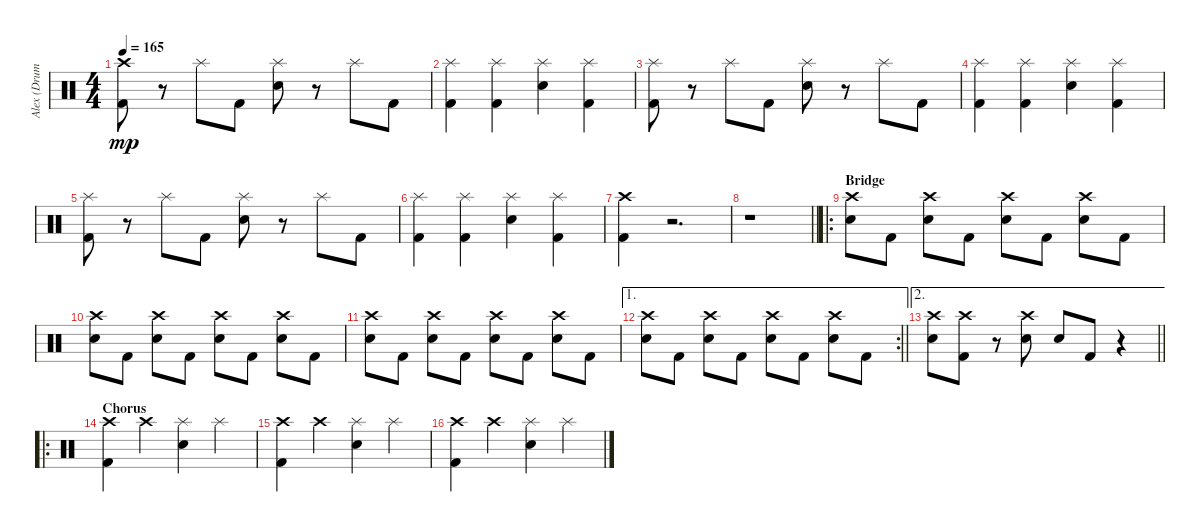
\track ("Alex (Drums)" "Alex (Drum") {instrument percussion}
\staff {score}
\articulation defaults
\ts (4 4)
\tempo 165
\clef neutral
\ks c
("Crash high (hit)" "Kick (hit) 2").8{dy mp} r.8 "Splash (hit)".8 "Kick (hit) 2".8 ("Splash (hit)" "Snare (hit) 2").8 r.8 "Splash (hit)".8 "Kick (hit) 2".8 |
("Splash (hit)" "Kick (hit) 2").4 ("Splash (hit)" "Kick (hit) 2").4 ("Splash (hit)" "Snare (hit) 2").4 ("Splash (hit)" "Kick (hit) 2").4 |
("Splash (hit)" "Kick (hit) 2").8 r.8 "Splash (hit)".8 "Kick (hit) 2".8 ("Splash (hit)" "Snare (hit) 2").8 r.8 "Splash (hit)".8 "Kick (hit) 2".8 |
("Splash (hit)" "Kick (hit) 2").4 ("Splash (hit)" "Kick (hit) 2").4 ("Splash (hit)" "Snare (hit) 2").4 ("Splash (hit)" "Kick (hit) 2").4 |
("Splash (hit)" "Kick (hit) 2").8 r.8 "Splash (hit)".8 "Kick (hit) 2".8 ("Splash (hit)" "Snare (hit) 2").8 r.8 "Splash (hit)".8 "Kick (hit) 2".8 |
("Splash (hit)" "Kick (hit) 2").4 ("Splash (hit)" "Kick (hit) 2").4 ("Splash (hit)" "Snare (hit) 2").4 ("Splash (hit)" "Kick (hit) 2").4 |
("Crash high (hit)" "Kick (hit) 2").4 r.2{d} |
\barLineRight lightlight
r.1 |
\ro
\section ("" "Bridge")
("Crash high (hit)" "Snare (hit) 2").8{volume 10} "Kick (hit) 2".8 ("Crash high (hit)" "Snare (hit) 2").8 "Kick (hit) 2".8 ("Crash high (hit)" "Snare (hit) 2").8 "Kick (hit) 2".8 ("Crash high (hit)" "Snare (hit) 2").8 "Kick (hit) 2".8 |
("Crash high (hit)" "Snare (hit) 2").8 "Kick (hit) 2".8 ("Crash high (hit)" "Snare (hit) 2").8 "Kick (hit) 2".8 ("Crash high (hit)" "Snare (hit) 2").8 "Kick (hit) 2".8 ("Crash high (hit)" "Snare (hit) 2").8 "Kick (hit) 2".8 |
("Crash high (hit)" "Snare (hit) 2").8 "Kick (hit) 2".8 ("Crash high (hit)" "Snare (hit) 2").8 "Kick (hit) 2".8 ("Crash high (hit)" "Snare (hit) 2").8 "Kick (hit) 2".8 ("Crash high (hit)" "Snare (hit) 2").8 "Kick (hit) 2".8 |
\ae 1
\rc 2
\barLineRight lightlight
("Crash high (hit)" "Snare (hit) 2").8 "Kick (hit) 2".8 ("Crash high (hit)" "Snare (hit) 2").8 "Kick (hit) 2".8 ("Crash high (hit)" "Snare (hit) 2").8 "Kick (hit) 2".8 ("Crash high (hit)" "Snare (hit) 2").8 "Kick (hit) 2".8 |
\ae 2
\barLineRight lightlight
("Crash high (hit)" "Snare (hit) 2").8 ("Crash high (hit)" "Kick (hit) 2").8 r.8 ("Crash high (hit)" "Snare (hit) 2").8 "Snare (hit) 2".8 "Kick (hit) 2".8 r.4 |
\ro
\section ("" "Chorus")
("Crash high (hit)" "Kick (hit) 2").4 "Crash high (hit)".4 ("Splash (hit)" "Snare (hit) 2").4 "Splash (hit)".4 |
("Crash high (hit)" "Kick (hit) 2").4 "Crash high (hit)".4 ("Splash (hit)" "Snare (hit) 2").4 "Splash (hit)".4 |
("Crash high (hit)" "Kick (hit) 2").4 "Crash high (hit)".4 ("Splash (hit)" "Snare (hit) 2").4 "Splash (hit)".4
